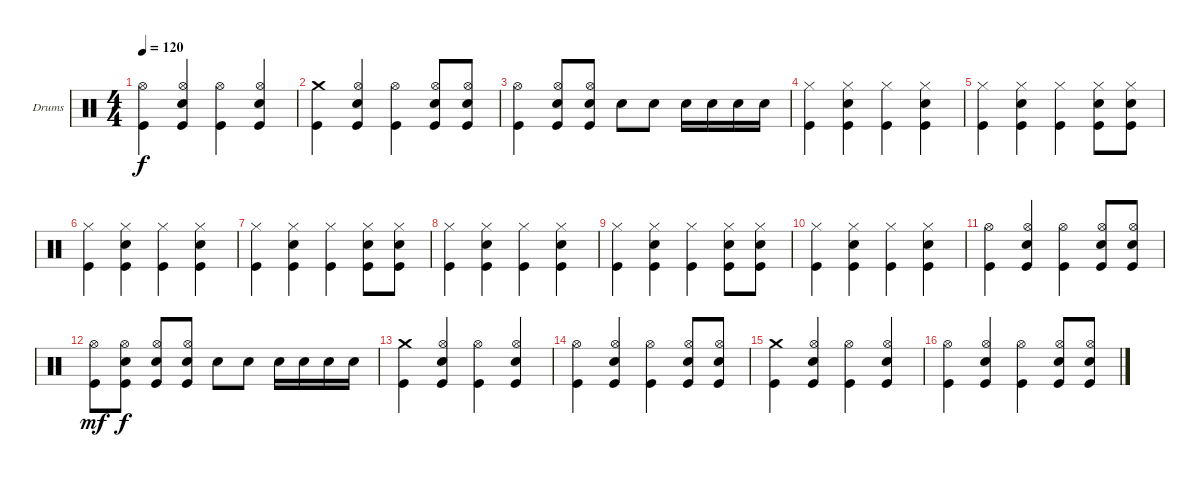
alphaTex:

\bracketExtendMode groupsimilarinstruments
\firstSystemTrackNameOrientation horizontal
\otherSystemsTrackNameOrientation horizontal
\track ("Drumkit" "Drums") {instrument percussion}
\staff {score}
\articulation defaults
\ts (4 4)
\tempo 120
\clef neutral
\ks c
("Kick (hit)" "Hi-Hat (open)").4{dy f} ("Kick (hit)" "Hi-Hat (open)" "Snare (hit) 2").4 ("Kick (hit)" "Hi-Hat (open)").4 ("Kick (hit)" "Hi-Hat (open)" "Snare (hit) 2").4 |
("Kick (hit)" "Crash medium (hit)").4 ("Kick (hit)" "Hi-Hat (open)" "Snare (hit) 2").4 ("Kick (hit)" "Hi-Hat (open)").4 ("Kick (hit)" "Hi-Hat (open)" "Snare (hit) 2").8 ("Kick (hit)" "Hi-Hat (open)" "Snare (hit) 2").8 |
("Hi-Hat (open)" "Kick (hit)").4 ("Hi-Hat (open)" "Kick (hit)" "Snare (hit) 2").8 ("Hi-Hat (open)" "Snare (hit) 2" "Kick (hit)").8 "Snare (hit) 2".8 "Snare (hit) 2".8 "Snare (hit) 2".16 "Snare (hit) 2".16 "Snare (hit) 2".16 "Snare (hit) 2".16 |
("Hi-Hat (closed)" "Kick (hit)").4 ("Hi-Hat (closed)" "Kick (hit)" "Snare (hit) 2").4 ("Hi-Hat (closed)" "Kick (hit)").4 ("Hi-Hat (closed)" "Kick (hit)" "Snare (hit) 2").4 |
("Hi-Hat (closed)" "Kick (hit)").4 ("Hi-Hat (closed)" "Kick (hit)" "Snare (hit) 2").4 ("Hi-Hat (closed)" "Kick (hit)").4 ("Hi-Hat (closed)" "Kick (hit)" "Snare (hit) 2").8 ("Hi-Hat (closed)" "Kick (hit)" "Snare (hit) 2").8 |
("Hi-Hat (closed)" "Kick (hit)").4 ("Hi-Hat (closed)" "Kick (hit)" "Snare (hit) 2").4 ("Hi-Hat (closed)" "Kick (hit)").4 ("Hi-Hat (closed)" "Kick (hit)" "Snare (hit) 2").4 |
("Hi-Hat (closed)" "Kick (hit)").4 ("Hi-Hat (closed)" "Kick (hit)" "Snare (hit) 2").4 ("Hi-Hat (closed)" "Kick (hit)").4 ("Hi-Hat (closed)" "Kick (hit)" "Snare (hit) 2").8 ("Hi-Hat (closed)" "Kick (hit)" "Snare (hit) 2").8 |
("Hi-Hat (closed)" "Kick (hit)").4 ("Hi-Hat (closed)" "Kick (hit)" "Snare (hit) 2").4 ("Hi-Hat (closed)" "Kick (hit)").4 ("Hi-Hat (closed)" "Kick (hit)" "Snare (hit) 2").4 |
("Hi-Hat (closed)" "Kick (hit)").4 ("Hi-Hat (closed)" "Kick (hit)" "Snare (hit) 2").4 ("Hi-Hat (closed)" "Kick (hit)").4 ("Hi-Hat (closed)" "Kick (hit)" "Snare (hit) 2").8 ("Hi-Hat (closed)" "Kick (hit)" "Snare (hit) 2").8 |
("Hi-Hat (closed)" "Kick (hit)").4 ("Hi-Hat (closed)" "Kick (hit)" "Snare (hit) 2").4 ("Hi-Hat (closed)" "Kick (hit)").4 ("Hi-Hat (closed)" "Kick (hit)" "Snare (hit) 2").4 |
("Kick (hit)" "Hi-Hat (open)").4 ("Kick (hit)" "Hi-Hat (open)" "Snare (hit) 2").4 ("Kick (hit)" "Hi-Hat (open)").4 ("Kick (hit)" "Hi-Hat (open)" "Snare (hit) 2").8 ("Kick (hit)" "Hi-Hat (open)" "Snare (hit) 2").8 |
("Hi-Hat (open)" "Kick (hit)").8{dy mf} ("Hi-Hat (open)" "Kick (hit)" "Snare (hit) 2").8{dy f} ("Hi-Hat (open)" "Snare (hit) 2" "Kick (hit)").8 ("Hi-Hat (open)" "Kick (hit)" "Snare (hit) 2").8 "Snare (hit) 2".8 "Snare (hit) 2".8 "Snare (hit) 2".16 "Snare (hit) 2".16 "Snare (hit) 2".16 "Snare (hit) 2".16 |
("Kick (hit)" "Crash medium (hit)").4 ("Kick (hit)" "Hi-Hat (open)" "Snare (hit) 2").4 ("Kick (hit)" "Hi-Hat (open)").4 ("Kick (hit)" "Hi-Hat (open)" "Snare (hit) 2").4 |
("Kick (hit)" "Hi-Hat (open)").4 ("Kick (hit)" "Hi-Hat (open)" "Snare (hit) 2").4 ("Kick (hit)" "Hi-Hat (open)").4 ("Kick (hit)" "Hi-Hat (open)" "Snare (hit) 2").8 ("Kick (hit)" "Hi-Hat (open)" "Snare (hit) 2").8 |
("Kick (hit)" "Crash medium (hit)").4 ("Kick (hit)" "Hi-Hat (open)" "Snare (hit) 2").4 ("Kick (hit)" "Hi-Hat (open)").4 ("Kick (hit)" "Hi-Hat (open)" "Snare (hit) 2").4 |
("Kick (hit)" "Hi-Hat (open)").4 ("Kick (hit)" "Hi-Hat (open)" "Snare (hit) 2").4 ("Kick (hit)" "Hi-Hat (open)").4 ("Kick (hit)" "Hi-Hat (open)" "Snare (hit) 2").8 ("Kick (hit)" "Hi-Hat (open)" "Snare (hit) 2").8
